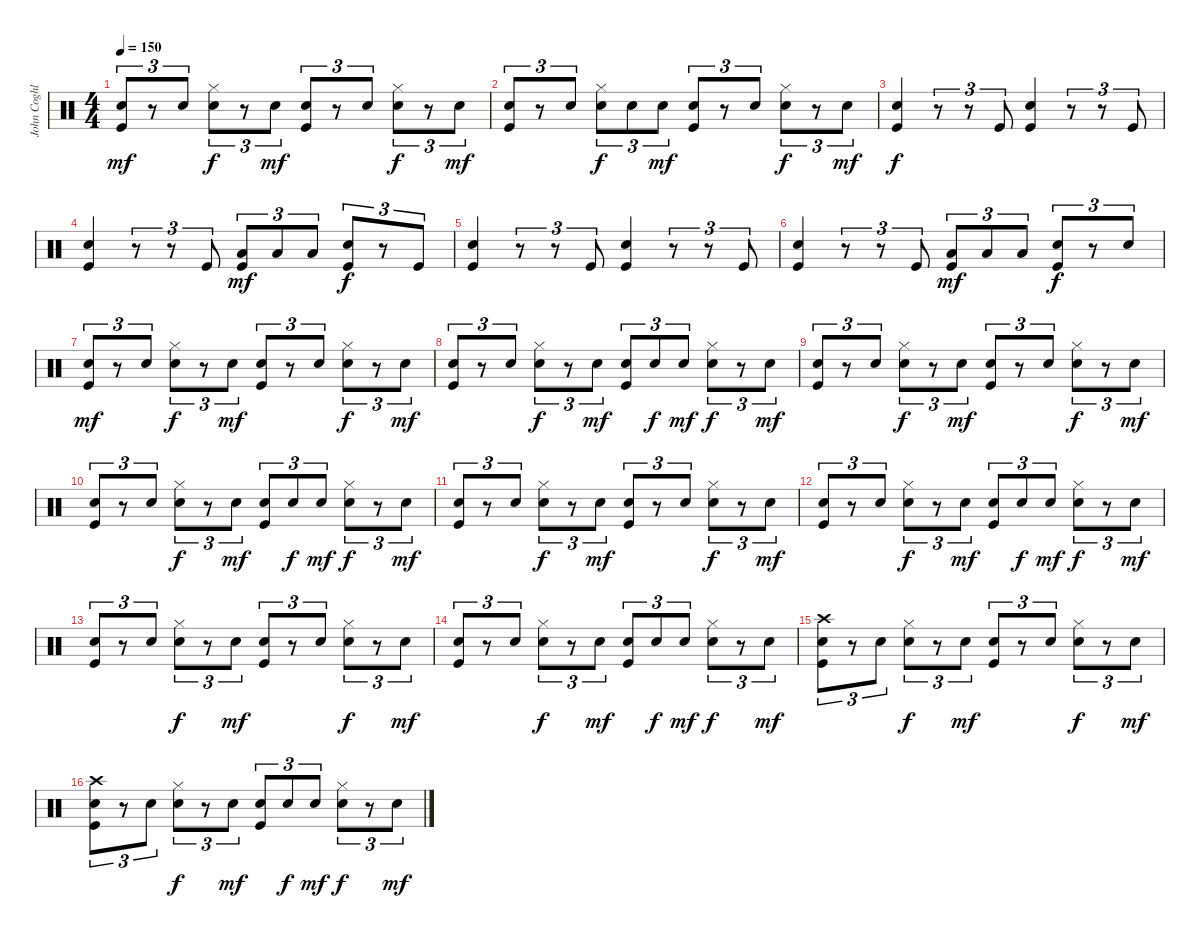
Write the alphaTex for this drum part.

\track ("John Coghlan" "John Coghl") {instrument percussion}
\staff {score}
\articulation defaults
\ts (4 4)
\tempo 150
\clef neutral
\ks c
("Electric Snare (hit)" "Kick (hit)").8{tu (3 2) dy mf} r.8{tu (3 2)} "Electric Snare (hit)".8{tu (3 2)} ("Hi-Hat (closed)" "Electric Snare (hit)").8{tu (3 2) dy f} r.8{tu (3 2)} "Electric Snare (hit)".8{tu (3 2) dy mf} ("Electric Snare (hit)" "Kick (hit)").8{tu (3 2)} r.8{tu (3 2)} "Electric Snare (hit)".8{tu (3 2)} ("Hi-Hat (closed)" "Electric Snare (hit)").8{tu (3 2) dy f} r.8{tu (3 2)} "Electric Snare (hit)".8{tu (3 2) dy mf} |
("Electric Snare (hit)" "Kick (hit)").8{tu (3 2)} r.8{tu (3 2)} "Electric Snare (hit)".8{tu (3 2)} ("Hi-Hat (closed)" "Electric Snare (hit)").8{tu (3 2) dy f} "Electric Snare (hit)".8{tu (3 2)} "Electric Snare (hit)".8{tu (3 2) dy mf} ("Electric Snare (hit)" "Kick (hit)").8{tu (3 2)} r.8{tu (3 2)} "Electric Snare (hit)".8{tu (3 2)} ("Hi-Hat (closed)" "Electric Snare (hit)").8{tu (3 2) dy f} r.8{tu (3 2)} "Electric Snare (hit)".8{tu (3 2) dy mf} |
("Electric Snare (hit)" "Kick (hit)").4{dy f} r.8{tu (3 2)} r.8{tu (3 2)} "Kick (hit)".8{tu (3 2)} ("Electric Snare (hit)" "Kick (hit)").4 r.8{tu (3 2)} r.8{tu (3 2)} "Kick (hit)".8{tu (3 2)} |
("Electric Snare (hit)" "Kick (hit)").4 r.8{tu (3 2)} r.8{tu (3 2)} "Kick (hit)".8{tu (3 2)} ("Low Tom (hit)" "Kick (hit)").8{tu (3 2) dy mf} "Low Tom (hit)".8{tu (3 2)} "Low Tom (hit)".8{tu (3 2)} ("Electric Snare (hit)" "Kick (hit)").8{tu (3 2) dy f} r.8{tu (3 2)} "Kick (hit)".8{tu (3 2)} |
("Electric Snare (hit)" "Kick (hit)").4 r.8{tu (3 2)} r.8{tu (3 2)} "Kick (hit)".8{tu (3 2)} ("Electric Snare (hit)" "Kick (hit)").4 r.8{tu (3 2)} r.8{tu (3 2)} "Kick (hit)".8{tu (3 2)} |
("Electric Snare (hit)" "Kick (hit)").4 r.8{tu (3 2)} r.8{tu (3 2)} "Kick (hit)".8{tu (3 2)} ("Low Tom (hit)" "Kick (hit)").8{tu (3 2) dy mf} "Low Tom (hit)".8{tu (3 2)} "Low Tom (hit)".8{tu (3 2)} ("Electric Snare (hit)" "Kick (hit)").8{tu (3 2) dy f} r.8{tu (3 2)} "Electric Snare (hit)".8{tu (3 2)} |
("Electric Snare (hit)" "Kick (hit)").8{tu (3 2) dy mf} r.8{tu (3 2)} "Electric Snare (hit)".8{tu (3 2)} ("Hi-Hat (closed)" "Electric Snare (hit)").8{tu (3 2) dy f} r.8{tu (3 2)} "Electric Snare (hit)".8{tu (3 2) dy mf} ("Electric Snare (hit)" "Kick (hit)").8{tu (3 2)} r.8{tu (3 2)} "Electric Snare (hit)".8{tu (3 2)} ("Hi-Hat (closed)" "Electric Snare (hit)").8{tu (3 2) dy f} r.8{tu (3 2)} "Electric Snare (hit)".8{tu (3 2) dy mf} |
("Electric Snare (hit)" "Kick (hit)").8{tu (3 2)} r.8{tu (3 2)} "Electric Snare (hit)".8{tu (3 2)} ("Hi-Hat (closed)" "Electric Snare (hit)").8{tu (3 2) dy f} r.8{tu (3 2)} "Electric Snare (hit)".8{tu (3 2) dy mf} ("Electric Snare (hit)" "Kick (hit)").8{tu (3 2)} "Electric Snare (hit)".8{tu (3 2) dy f} "Electric Snare (hit)".8{tu (3 2) dy mf} ("Hi-Hat (closed)" "Electric Snare (hit)").8{tu (3 2) dy f} r.8{tu (3 2)} "Electric Snare (hit)".8{tu (3 2) dy mf} |
("Electric Snare (hit)" "Kick (hit)").8{tu (3 2)} r.8{tu (3 2)} "Electric Snare (hit)".8{tu (3 2)} ("Hi-Hat (closed)" "Electric Snare (hit)").8{tu (3 2) dy f} r.8{tu (3 2)} "Electric Snare (hit)".8{tu (3 2) dy mf} ("Electric Snare (hit)" "Kick (hit)").8{tu (3 2)} r.8{tu (3 2)} "Electric Snare (hit)".8{tu (3 2)} ("Hi-Hat (closed)" "Electric Snare (hit)").8{tu (3 2) dy f} r.8{tu (3 2)} "Electric Snare (hit)".8{tu (3 2) dy mf} |
("Electric Snare (hit)" "Kick (hit)").8{tu (3 2)} r.8{tu (3 2)} "Electric Snare (hit)".8{tu (3 2)} ("Hi-Hat (closed)" "Electric Snare (hit)").8{tu (3 2) dy f} r.8{tu (3 2)} "Electric Snare (hit)".8{tu (3 2) dy mf} ("Electric Snare (hit)" "Kick (hit)").8{tu (3 2)} "Electric Snare (hit)".8{tu (3 2) dy f} "Electric Snare (hit)".8{tu (3 2) dy mf} ("Hi-Hat (closed)" "Electric Snare (hit)").8{tu (3 2) dy f} r.8{tu (3 2)} "Electric Snare (hit)".8{tu (3 2) dy mf} |
("Electric Snare (hit)" "Kick (hit)").8{tu (3 2)} r.8{tu (3 2)} "Electric Snare (hit)".8{tu (3 2)} ("Hi-Hat (closed)" "Electric Snare (hit)").8{tu (3 2) dy f} r.8{tu (3 2)} "Electric Snare (hit)".8{tu (3 2) dy mf} ("Electric Snare (hit)" "Kick (hit)").8{tu (3 2)} r.8{tu (3 2)} "Electric Snare (hit)".8{tu (3 2)} ("Hi-Hat (closed)" "Electric Snare (hit)").8{tu (3 2) dy f} r.8{tu (3 2)} "Electric Snare (hit)".8{tu (3 2) dy mf} |
("Electric Snare (hit)" "Kick (hit)").8{tu (3 2)} r.8{tu (3 2)} "Electric Snare (hit)".8{tu (3 2)} ("Hi-Hat (closed)" "Electric Snare (hit)").8{tu (3 2) dy f} r.8{tu (3 2)} "Electric Snare (hit)".8{tu (3 2) dy mf} ("Electric Snare (hit)" "Kick (hit)").8{tu (3 2)} "Electric Snare (hit)".8{tu (3 2) dy f} "Electric Snare (hit)".8{tu (3 2) dy mf} ("Hi-Hat (closed)" "Electric Snare (hit)").8{tu (3 2) dy f} r.8{tu (3 2)} "Electric Snare (hit)".8{tu (3 2) dy mf} |
("Electric Snare (hit)" "Kick (hit)").8{tu (3 2)} r.8{tu (3 2)} "Electric Snare (hit)".8{tu (3 2)} ("Hi-Hat (closed)" "Electric Snare (hit)").8{tu (3 2) dy f} r.8{tu (3 2)} "Electric Snare (hit)".8{tu (3 2) dy mf} ("Electric Snare (hit)" "Kick (hit)").8{tu (3 2)} r.8{tu (3 2)} "Electric Snare (hit)".8{tu (3 2)} ("Hi-Hat (closed)" "Electric Snare (hit)").8{tu (3 2) dy f} r.8{tu (3 2)} "Electric Snare (hit)".8{tu (3 2) dy mf} |
("Electric Snare (hit)" "Kick (hit)").8{tu (3 2)} r.8{tu (3 2)} "Electric Snare (hit)".8{tu (3 2)} ("Hi-Hat (closed)" "Electric Snare (hit)").8{tu (3 2) dy f} r.8{tu (3 2)} "Electric Snare (hit)".8{tu (3 2) dy mf} ("Electric Snare (hit)" "Kick (hit)").8{tu (3 2)} "Electric Snare (hit)".8{tu (3 2) dy f} "Electric Snare (hit)".8{tu (3 2) dy mf} ("Hi-Hat (closed)" "Electric Snare (hit)").8{tu (3 2) dy f} r.8{tu (3 2)} "Electric Snare (hit)".8{tu (3 2) dy mf} |
("Crash high (hit)" "Electric Snare (hit)" "Kick (hit)").8{tu (3 2)} r.8{tu (3 2)} "Electric Snare (hit)".8{tu (3 2)} ("Hi-Hat (closed)" "Electric Snare (hit)").8{tu (3 2) dy f} r.8{tu (3 2)} "Electric Snare (hit)".8{tu (3 2) dy mf} ("Electric Snare (hit)" "Kick (hit)").8{tu (3 2)} r.8{tu (3 2)} "Electric Snare (hit)".8{tu (3 2)} ("Hi-Hat (closed)" "Electric Snare (hit)").8{tu (3 2) dy f} r.8{tu (3 2)} "Electric Snare (hit)".8{tu (3 2) dy mf} |
("Crash high (hit)" "Electric Snare (hit)" "Kick (hit)").8{tu (3 2)} r.8{tu (3 2)} "Electric Snare (hit)".8{tu (3 2)} ("Hi-Hat (closed)" "Electric Snare (hit)").8{tu (3 2) dy f} r.8{tu (3 2)} "Electric Snare (hit)".8{tu (3 2) dy mf} ("Electric Snare (hit)" "Kick (hit)").8{tu (3 2)} "Electric Snare (hit)".8{tu (3 2) dy f} "Electric Snare (hit)".8{tu (3 2) dy mf} ("Hi-Hat (closed)" "Electric Snare (hit)").8{tu (3 2) dy f} r.8{tu (3 2)} "Electric Snare (hit)".8{tu (3 2) dy mf}
